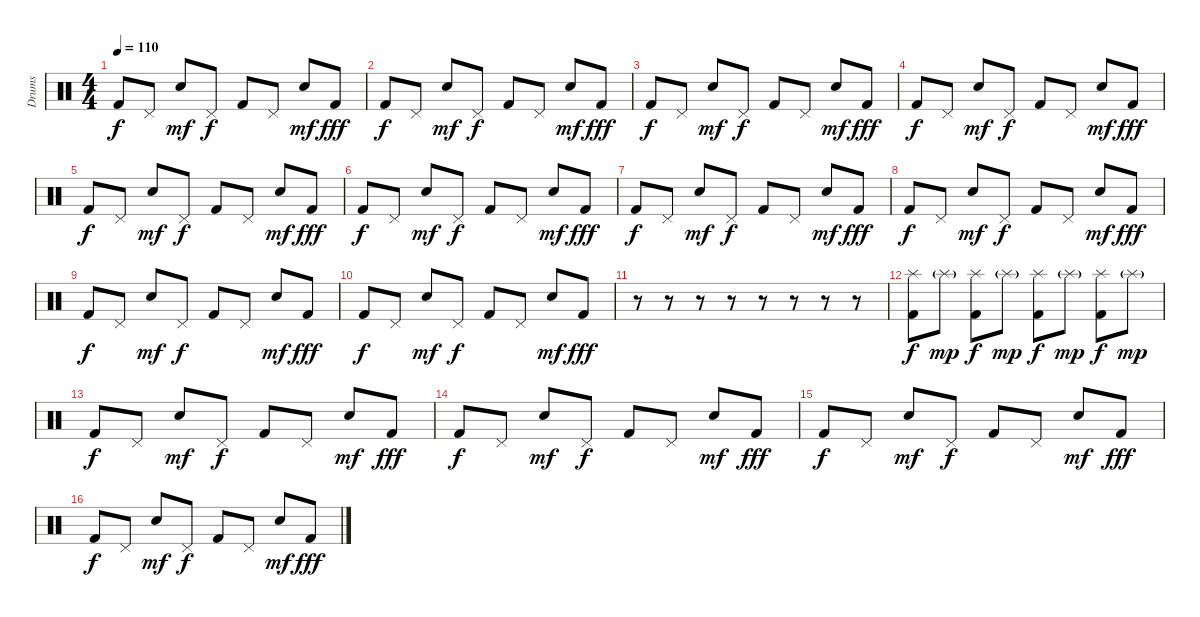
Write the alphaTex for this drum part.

\track ("Drums" "Drums") {instrument percussion}
\staff {score}
\articulation defaults
\ts (4 4)
\tempo 110
\clef neutral
\ks c "Kick (hit) 2".8{dy f} "Pedal Hi-Hat (hit)".8 "Electric Snare (hit)".8{dy mf} "Pedal Hi-Hat (hit)".8{dy f} "Kick (hit) 2".8 "Pedal Hi-Hat (hit)".8 "Electric Snare (hit)".8{dy mf} "Kick (hit) 2".8{dy fff}
|
"Kick (hit) 2".8{dy f} "Pedal Hi-Hat (hit)".8 "Electric Snare (hit)".8{dy mf} "Pedal Hi-Hat (hit)".8{dy f} "Kick (hit) 2".8 "Pedal Hi-Hat (hit)".8 "Electric Snare (hit)".8{dy mf} "Kick (hit) 2".8{dy fff} |
"Kick (hit) 2".8{dy f} "Pedal Hi-Hat (hit)".8 "Electric Snare (hit)".8{dy mf} "Pedal Hi-Hat (hit)".8{dy f} "Kick (hit) 2".8 "Pedal Hi-Hat (hit)".8 "Electric Snare (hit)".8{dy mf} "Kick (hit) 2".8{dy fff} |
"Kick (hit) 2".8{dy f} "Pedal Hi-Hat (hit)".8 "Electric Snare (hit)".8{dy mf} "Pedal Hi-Hat (hit)".8{dy f} "Kick (hit) 2".8 "Pedal Hi-Hat (hit)".8 "Electric Snare (hit)".8{dy mf} "Kick (hit) 2".8{dy fff} |
"Kick (hit) 2".8{dy f} "Pedal Hi-Hat (hit)".8 "Electric Snare (hit)".8{dy mf} "Pedal Hi-Hat (hit)".8{dy f} "Kick (hit) 2".8 "Pedal Hi-Hat (hit)".8 "Electric Snare (hit)".8{dy mf} "Kick (hit) 2".8{dy fff} |
"Kick (hit) 2".8{dy f} "Pedal Hi-Hat (hit)".8 "Electric Snare (hit)".8{dy mf} "Pedal Hi-Hat (hit)".8{dy f} "Kick (hit) 2".8 "Pedal Hi-Hat (hit)".8 "Electric Snare (hit)".8{dy mf} "Kick (hit) 2".8{dy fff} |
"Kick (hit) 2".8{dy f} "Pedal Hi-Hat (hit)".8 "Electric Snare (hit)".8{dy mf} "Pedal Hi-Hat (hit)".8{dy f} "Kick (hit) 2".8 "Pedal Hi-Hat (hit)".8 "Electric Snare (hit)".8{dy mf} "Kick (hit) 2".8{dy fff} |
"Kick (hit) 2".8{dy f} "Pedal Hi-Hat (hit)".8 "Electric Snare (hit)".8{dy mf} "Pedal Hi-Hat (hit)".8{dy f} "Kick (hit) 2".8 "Pedal Hi-Hat (hit)".8 "Electric Snare (hit)".8{dy mf} "Kick (hit) 2".8{dy fff} |
"Kick (hit) 2".8{dy f} "Pedal Hi-Hat (hit)".8 "Electric Snare (hit)".8{dy mf} "Pedal Hi-Hat (hit)".8{dy f} "Kick (hit) 2".8 "Pedal Hi-Hat (hit)".8 "Electric Snare (hit)".8{dy mf} "Kick (hit) 2".8{dy fff} |
"Kick (hit) 2".8{dy f} "Pedal Hi-Hat (hit)".8 "Electric Snare (hit)".8{dy mf} "Pedal Hi-Hat (hit)".8{dy f} "Kick (hit) 2".8 "Pedal Hi-Hat (hit)".8 "Electric Snare (hit)".8{dy mf} "Kick (hit) 2".8{dy fff} |
r.8 r.8 r.8 r.8 r.8 r.8 r.8 r.8 |
("Kick (hit) 2" "Splash (hit)").8{dy f} "Splash (hit)"{g}.8{dy mp} ("Kick (hit) 2" "Splash (hit)").8{dy f} "Splash (hit)"{g}.8{dy mp} ("Kick (hit) 2" "Splash (hit)").8{dy f} "Splash (hit)"{g}.8{dy mp} ("Kick (hit) 2" "Splash (hit)").8{dy f} "Splash (hit)"{g}.8{dy mp} |
"Kick (hit) 2".8{dy f} "Pedal Hi-Hat (hit)".8 "Electric Snare (hit)".8{dy mf} "Pedal Hi-Hat (hit)".8{dy f} "Kick (hit) 2".8 "Pedal Hi-Hat (hit)".8 "Electric Snare (hit)".8{dy mf} "Kick (hit) 2".8{dy fff} |
"Kick (hit) 2".8{dy f} "Pedal Hi-Hat (hit)".8 "Electric Snare (hit)".8{dy mf} "Pedal Hi-Hat (hit)".8{dy f} "Kick (hit) 2".8 "Pedal Hi-Hat (hit)".8 "Electric Snare (hit)".8{dy mf} "Kick (hit) 2".8{dy fff} |
"Kick (hit) 2".8{dy f} "Pedal Hi-Hat (hit)".8 "Electric Snare (hit)".8{dy mf} "Pedal Hi-Hat (hit)".8{dy f} "Kick (hit) 2".8 "Pedal Hi-Hat (hit)".8 "Electric Snare (hit)".8{dy mf} "Kick (hit) 2".8{dy fff} |
"Kick (hit) 2".8{dy f} "Pedal Hi-Hat (hit)".8 "Electric Snare (hit)".8{dy mf} "Pedal Hi-Hat (hit)".8{dy f} "Kick (hit) 2".8 "Pedal Hi-Hat (hit)".8 "Electric Snare (hit)".8{dy mf} "Kick (hit) 2".8{dy fff}
